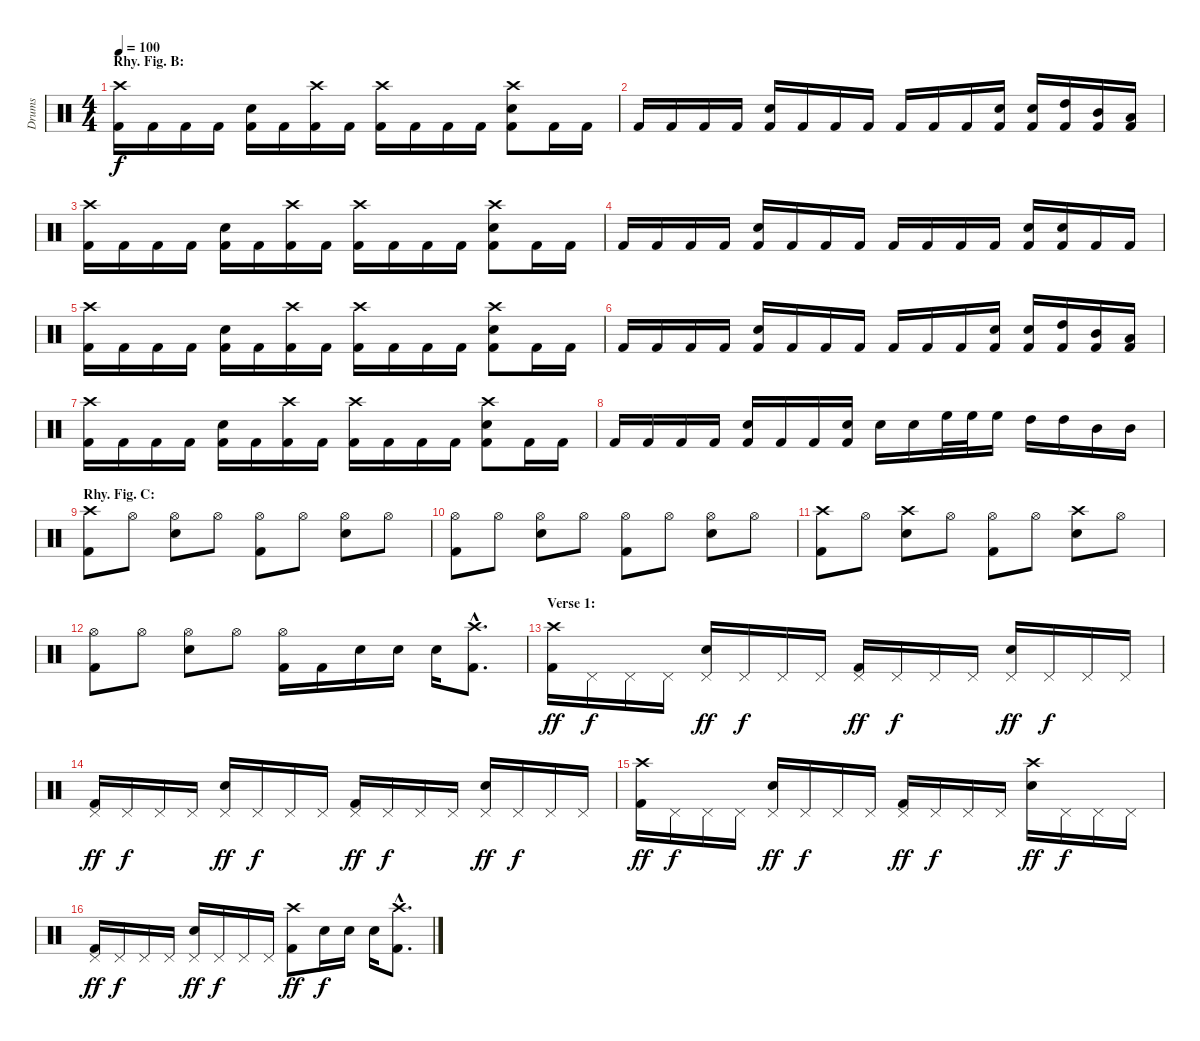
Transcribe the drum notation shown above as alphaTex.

\track ("Drums" "Drums") {instrument percussion}
\staff {score}
\articulation defaults
\ts (4 4)
\section ("" "Rhy. Fig. B:")
\tempo 100
\clef neutral
\ks c
("Crash high (hit)" "Kick (hit) 2").16{dy f} "Kick (hit) 2".16 "Kick (hit) 2".16 "Kick (hit) 2".16 ("Electric Snare (hit)" "Kick (hit) 2").16 "Kick (hit) 2".16 ("Crash high (hit)" "Kick (hit) 2").16 "Kick (hit) 2".16 ("Crash high (hit)" "Kick (hit) 2").16 "Kick (hit) 2".16 "Kick (hit) 2".16 "Kick (hit) 2".16 ("Crash high (hit)" "Electric Snare (hit)" "Kick (hit) 2").8 "Kick (hit) 2".16 "Kick (hit) 2".16 |
"Kick (hit) 2".16 "Kick (hit) 2".16 "Kick (hit) 2".16 "Kick (hit) 2".16 ("Electric Snare (hit)" "Kick (hit) 2").16 "Kick (hit) 2".16 "Kick (hit) 2".16 "Kick (hit) 2".16 "Kick (hit) 2".16 "Kick (hit) 2".16 "Kick (hit) 2".16 ("Electric Snare (hit)" "Kick (hit) 2").16 ("Electric Snare (hit)" "Kick (hit) 2").16 ("High Tom (hit)" "Kick (hit) 2").16 ("Mid Tom (hit)" "Kick (hit) 2").16 ("Low Tom (hit)" "Kick (hit) 2").16 |
("Crash high (hit)" "Kick (hit) 2").16 "Kick (hit) 2".16 "Kick (hit) 2".16 "Kick (hit) 2".16 ("Electric Snare (hit)" "Kick (hit) 2").16 "Kick (hit) 2".16 ("Crash high (hit)" "Kick (hit) 2").16 "Kick (hit) 2".16 ("Crash high (hit)" "Kick (hit) 2").16 "Kick (hit) 2".16 "Kick (hit) 2".16 "Kick (hit) 2".16 ("Crash high (hit)" "Electric Snare (hit)" "Kick (hit) 2").8 "Kick (hit) 2".16 "Kick (hit) 2".16 |
"Kick (hit) 2".16 "Kick (hit) 2".16 "Kick (hit) 2".16 "Kick (hit) 2".16 ("Electric Snare (hit)" "Kick (hit) 2").16 "Kick (hit) 2".16 "Kick (hit) 2".16 "Kick (hit) 2".16 "Kick (hit) 2".16 "Kick (hit) 2".16 "Kick (hit) 2".16 "Kick (hit) 2".16 ("Electric Snare (hit)" "Kick (hit) 2").16 ("Electric Snare (hit)" "Kick (hit) 2").16 "Kick (hit) 2".16 "Kick (hit) 2".16 |
("Crash high (hit)" "Kick (hit) 2").16 "Kick (hit) 2".16 "Kick (hit) 2".16 "Kick (hit) 2".16 ("Electric Snare (hit)" "Kick (hit) 2").16 "Kick (hit) 2".16 ("Crash high (hit)" "Kick (hit) 2").16 "Kick (hit) 2".16 ("Crash high (hit)" "Kick (hit) 2").16 "Kick (hit) 2".16 "Kick (hit) 2".16 "Kick (hit) 2".16 ("Crash high (hit)" "Electric Snare (hit)" "Kick (hit) 2").8 "Kick (hit) 2".16 "Kick (hit) 2".16 |
"Kick (hit) 2".16 "Kick (hit) 2".16 "Kick (hit) 2".16 "Kick (hit) 2".16 ("Electric Snare (hit)" "Kick (hit) 2").16 "Kick (hit) 2".16 "Kick (hit) 2".16 "Kick (hit) 2".16 "Kick (hit) 2".16 "Kick (hit) 2".16 "Kick (hit) 2".16 ("Electric Snare (hit)" "Kick (hit) 2").16 ("Electric Snare (hit)" "Kick (hit) 2").16 ("High Tom (hit)" "Kick (hit) 2").16 ("Mid Tom (hit)" "Kick (hit) 2").16 ("Low Tom (hit)" "Kick (hit) 2").16 |
("Crash high (hit)" "Kick (hit) 2").16 "Kick (hit) 2".16 "Kick (hit) 2".16 "Kick (hit) 2".16 ("Electric Snare (hit)" "Kick (hit) 2").16 "Kick (hit) 2".16 ("Crash high (hit)" "Kick (hit) 2").16 "Kick (hit) 2".16 ("Crash high (hit)" "Kick (hit) 2").16 "Kick (hit) 2".16 "Kick (hit) 2".16 "Kick (hit) 2".16 ("Crash high (hit)" "Electric Snare (hit)" "Kick (hit) 2").8 "Kick (hit) 2".16 "Kick (hit) 2".16 |
"Kick (hit) 2".16 "Kick (hit) 2".16 "Kick (hit) 2".16 "Kick (hit) 2".16 ("Electric Snare (hit)" "Kick (hit) 2").16 "Kick (hit) 2".16 "Kick (hit) 2".16 ("Electric Snare (hit)" "Kick (hit) 2").16 "Electric Snare (hit)".16 "Electric Snare (hit)".16 "High Floor Tom (hit)".32 "High Floor Tom (hit)".32 "High Floor Tom (hit)".16 "High Tom (hit)".16 "High Tom (hit)".16 "Mid Tom (hit)".16 "Mid Tom (hit)".16 |
\section ("" "Rhy. Fig. C:")
("Crash high (hit)" "Kick (hit) 2").8 "Hi-Hat (open)".8 ("Hi-Hat (open)" "Electric Snare (hit)").8 "Hi-Hat (open)".8 ("Hi-Hat (open)" "Kick (hit) 2").8 "Hi-Hat (open)".8 ("Hi-Hat (open)" "Electric Snare (hit)").8 "Hi-Hat (open)".8 |
("Hi-Hat (open)" "Kick (hit) 2").8 "Hi-Hat (open)".8 ("Hi-Hat (open)" "Electric Snare (hit)").8 "Hi-Hat (open)".8 ("Hi-Hat (open)" "Kick (hit) 2").8 "Hi-Hat (open)".8 ("Hi-Hat (open)" "Electric Snare (hit)").8 "Hi-Hat (open)".8 |
("Crash high (hit)" "Kick (hit) 2").8 "Hi-Hat (open)".8 ("Crash high (hit)" "Electric Snare (hit)").8 "Hi-Hat (open)".8 ("Hi-Hat (open)" "Kick (hit) 2").8 "Hi-Hat (open)".8 ("Crash high (hit)" "Electric Snare (hit)").8 "Hi-Hat (open)".8 |
("Hi-Hat (open)" "Kick (hit) 2").8 "Hi-Hat (open)".8 ("Hi-Hat (open)" "Electric Snare (hit)").8 "Hi-Hat (open)".8 ("Hi-Hat (open)" "Kick (hit) 2").16 "Kick (hit) 2".16 "Electric Snare (hit)".16 "Electric Snare (hit)".16 "Electric Snare (hit)".16 ("Crash high (hit)"{hac} "Kick (hit) 2"{hac}).8{d} |
\section ("" "Verse 1:")
("Crash high (hit)" "Kick (hit) 2").16{dy ff} "Pedal Hi-Hat (hit)".16{dy f} "Pedal Hi-Hat (hit)".16 "Pedal Hi-Hat (hit)".16 ("Pedal Hi-Hat (hit)" "Electric Snare (hit)").16{dy ff} "Pedal Hi-Hat (hit)".16{dy f} "Pedal Hi-Hat (hit)".16 "Pedal Hi-Hat (hit)".16 ("Pedal Hi-Hat (hit)" "Kick (hit) 2").16{dy ff} "Pedal Hi-Hat (hit)".16{dy f} "Pedal Hi-Hat (hit)".16 "Pedal Hi-Hat (hit)".16 ("Pedal Hi-Hat (hit)" "Electric Snare (hit)").16{dy ff} "Pedal Hi-Hat (hit)".16{dy f} "Pedal Hi-Hat (hit)".16 "Pedal Hi-Hat (hit)".16 |
("Pedal Hi-Hat (hit)" "Kick (hit) 2").16{dy ff} "Pedal Hi-Hat (hit)".16{dy f} "Pedal Hi-Hat (hit)".16 "Pedal Hi-Hat (hit)".16 ("Pedal Hi-Hat (hit)" "Electric Snare (hit)").16{dy ff} "Pedal Hi-Hat (hit)".16{dy f} "Pedal Hi-Hat (hit)".16 "Pedal Hi-Hat (hit)".16 ("Pedal Hi-Hat (hit)" "Kick (hit) 2").16{dy ff} "Pedal Hi-Hat (hit)".16{dy f} "Pedal Hi-Hat (hit)".16 "Pedal Hi-Hat (hit)".16 ("Pedal Hi-Hat (hit)" "Electric Snare (hit)").16{dy ff} "Pedal Hi-Hat (hit)".16{dy f} "Pedal Hi-Hat (hit)".16 "Pedal Hi-Hat (hit)".16 |
("Crash high (hit)" "Kick (hit) 2").16{dy ff} "Pedal Hi-Hat (hit)".16{dy f} "Pedal Hi-Hat (hit)".16 "Pedal Hi-Hat (hit)".16 ("Pedal Hi-Hat (hit)" "Electric Snare (hit)").16{dy ff} "Pedal Hi-Hat (hit)".16{dy f} "Pedal Hi-Hat (hit)".16 "Pedal Hi-Hat (hit)".16 ("Pedal Hi-Hat (hit)" "Kick (hit) 2").16{dy ff} "Pedal Hi-Hat (hit)".16{dy f} "Pedal Hi-Hat (hit)".16 "Pedal Hi-Hat (hit)".16 ("Crash high (hit)" "Electric Snare (hit)").16{dy ff} "Pedal Hi-Hat (hit)".16{dy f} "Pedal Hi-Hat (hit)".16 "Pedal Hi-Hat (hit)".16 |
("Pedal Hi-Hat (hit)" "Kick (hit) 2").16{dy ff} "Pedal Hi-Hat (hit)".16{dy f} "Pedal Hi-Hat (hit)".16 "Pedal Hi-Hat (hit)".16 ("Pedal Hi-Hat (hit)" "Electric Snare (hit)").16{dy ff} "Pedal Hi-Hat (hit)".16{dy f} "Pedal Hi-Hat (hit)".16 "Pedal Hi-Hat (hit)".16 ("Crash high (hit)" "Kick (hit) 2").8{dy ff} "Electric Snare (hit)".16{dy f} "Electric Snare (hit)".16 "Electric Snare (hit)".16 ("Crash high (hit)"{hac} "Kick (hit) 2"{hac}).8{d}
